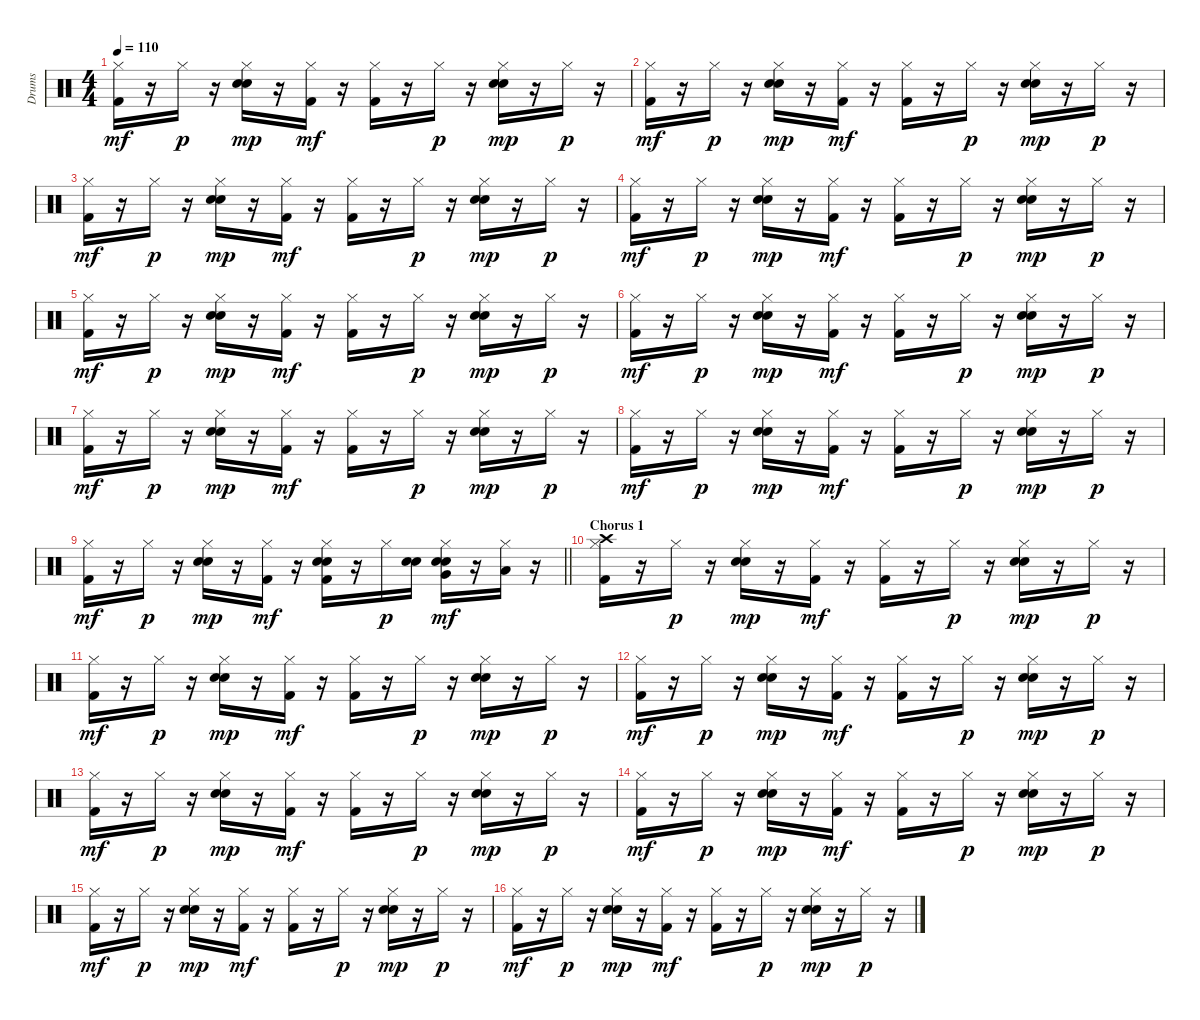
\track ("Drums" "Drums") {instrument percussion}
\staff {score}
\articulation defaults
\ts (4 4)
\tempo 110
\clef neutral
\ks c
("Hi-Hat (closed)" "Kick (hit) 2").16{dy mf} r.16 "Hi-Hat (closed)".16{dy p} r.16 ("Hi-Hat (closed)" "Electric Snare (hit)" "Snare (hit) 2").16{dy mp} r.16 ("Hi-Hat (closed)" "Kick (hit) 2").16{dy mf} r.16 ("Hi-Hat (closed)" "Kick (hit) 2").16 r.16 "Hi-Hat (closed)".16{dy p} r.16 ("Hi-Hat (closed)" "Electric Snare (hit)" "Snare (hit) 2").16{dy mp} r.16 "Hi-Hat (closed)".16{dy p} r.16 |
("Hi-Hat (closed)" "Kick (hit) 2").16{dy mf} r.16 "Hi-Hat (closed)".16{dy p} r.16 ("Hi-Hat (closed)" "Electric Snare (hit)" "Snare (hit) 2").16{dy mp} r.16 ("Hi-Hat (closed)" "Kick (hit) 2").16{dy mf} r.16 ("Hi-Hat (closed)" "Kick (hit) 2").16 r.16 "Hi-Hat (closed)".16{dy p} r.16 ("Hi-Hat (closed)" "Electric Snare (hit)" "Snare (hit) 2").16{dy mp} r.16 "Hi-Hat (closed)".16{dy p} r.16 |
("Hi-Hat (closed)" "Kick (hit) 2").16{dy mf} r.16 "Hi-Hat (closed)".16{dy p} r.16 ("Hi-Hat (closed)" "Electric Snare (hit)" "Snare (hit) 2").16{dy mp} r.16 ("Hi-Hat (closed)" "Kick (hit) 2").16{dy mf} r.16 ("Hi-Hat (closed)" "Kick (hit) 2").16 r.16 "Hi-Hat (closed)".16{dy p} r.16 ("Hi-Hat (closed)" "Electric Snare (hit)" "Snare (hit) 2").16{dy mp} r.16 "Hi-Hat (closed)".16{dy p} r.16 |
("Hi-Hat (closed)" "Kick (hit) 2").16{dy mf} r.16 "Hi-Hat (closed)".16{dy p} r.16 ("Hi-Hat (closed)" "Electric Snare (hit)" "Snare (hit) 2").16{dy mp} r.16 ("Hi-Hat (closed)" "Kick (hit) 2").16{dy mf} r.16 ("Hi-Hat (closed)" "Kick (hit) 2").16 r.16 "Hi-Hat (closed)".16{dy p} r.16 ("Hi-Hat (closed)" "Electric Snare (hit)" "Snare (hit) 2").16{dy mp} r.16 "Hi-Hat (closed)".16{dy p} r.16 |
("Hi-Hat (closed)" "Kick (hit) 2").16{dy mf} r.16 "Hi-Hat (closed)".16{dy p} r.16 ("Hi-Hat (closed)" "Electric Snare (hit)" "Snare (hit) 2").16{dy mp} r.16 ("Hi-Hat (closed)" "Kick (hit) 2").16{dy mf} r.16 ("Hi-Hat (closed)" "Kick (hit) 2").16 r.16 "Hi-Hat (closed)".16{dy p} r.16 ("Hi-Hat (closed)" "Electric Snare (hit)" "Snare (hit) 2").16{dy mp} r.16 "Hi-Hat (closed)".16{dy p} r.16 |
("Hi-Hat (closed)" "Kick (hit) 2").16{dy mf} r.16 "Hi-Hat (closed)".16{dy p} r.16 ("Hi-Hat (closed)" "Electric Snare (hit)" "Snare (hit) 2").16{dy mp} r.16 ("Hi-Hat (closed)" "Kick (hit) 2").16{dy mf} r.16 ("Hi-Hat (closed)" "Kick (hit) 2").16 r.16 "Hi-Hat (closed)".16{dy p} r.16 ("Hi-Hat (closed)" "Electric Snare (hit)" "Snare (hit) 2").16{dy mp} r.16 "Hi-Hat (closed)".16{dy p} r.16 |
("Hi-Hat (closed)" "Kick (hit) 2").16{dy mf} r.16 "Hi-Hat (closed)".16{dy p} r.16 ("Hi-Hat (closed)" "Electric Snare (hit)" "Snare (hit) 2").16{dy mp} r.16 ("Hi-Hat (closed)" "Kick (hit) 2").16{dy mf} r.16 ("Hi-Hat (closed)" "Kick (hit) 2").16 r.16 "Hi-Hat (closed)".16{dy p} r.16 ("Hi-Hat (closed)" "Electric Snare (hit)" "Snare (hit) 2").16{dy mp} r.16 "Hi-Hat (closed)".16{dy p} r.16 |
("Hi-Hat (closed)" "Kick (hit) 2").16{dy mf} r.16 "Hi-Hat (closed)".16{dy p} r.16 ("Hi-Hat (closed)" "Electric Snare (hit)" "Snare (hit) 2").16{dy mp} r.16 ("Hi-Hat (closed)" "Kick (hit) 2").16{dy mf} r.16 ("Hi-Hat (closed)" "Kick (hit) 2").16 r.16 "Hi-Hat (closed)".16{dy p} r.16 ("Hi-Hat (closed)" "Electric Snare (hit)" "Snare (hit) 2").16{dy mp} r.16 "Hi-Hat (closed)".16{dy p} r.16 |
\barLineRight lightlight
("Hi-Hat (closed)" "Kick (hit) 2").16{dy mf} r.16 "Hi-Hat (closed)".16{dy p} r.16 ("Hi-Hat (closed)" "Electric Snare (hit)" "Snare (hit) 2").16{dy mp} r.16 ("Hi-Hat (closed)" "Kick (hit) 2").16{dy mf} r.16 ("Hi-Hat (closed)" "Electric Snare (hit)" "Snare (hit) 2" "Kick (hit) 2").16 r.16 "Hi-Hat (closed)".16{dy p} ("Electric Snare (hit)" "Snare (hit) 2").16 ("Hi-Hat (closed)" "Electric Snare (hit)" "Snare (hit) 2" "Very Low Tom (hit)").16{dy mf} r.16 ("Hi-Hat (closed)" "Low Floor Tom (hit)").16 r.16 |
\section ("" "Chorus 1")
("Crash high (hit)" "Hi-Hat (closed)" "Kick (hit) 2").16 r.16 "Hi-Hat (closed)".16{dy p} r.16 ("Hi-Hat (closed)" "Electric Snare (hit)" "Snare (hit) 2").16{dy mp} r.16 ("Hi-Hat (closed)" "Kick (hit) 2").16{dy mf} r.16 ("Hi-Hat (closed)" "Kick (hit) 2").16 r.16 "Hi-Hat (closed)".16{dy p} r.16 ("Hi-Hat (closed)" "Electric Snare (hit)" "Snare (hit) 2").16{dy mp} r.16 "Hi-Hat (closed)".16{dy p} r.16 |
("Hi-Hat (closed)" "Kick (hit) 2").16{dy mf} r.16 "Hi-Hat (closed)".16{dy p} r.16 ("Hi-Hat (closed)" "Electric Snare (hit)" "Snare (hit) 2").16{dy mp} r.16 ("Hi-Hat (closed)" "Kick (hit) 2").16{dy mf} r.16 ("Hi-Hat (closed)" "Kick (hit) 2").16 r.16 "Hi-Hat (closed)".16{dy p} r.16 ("Hi-Hat (closed)" "Electric Snare (hit)" "Snare (hit) 2").16{dy mp} r.16 "Hi-Hat (closed)".16{dy p} r.16 |
("Hi-Hat (closed)" "Kick (hit) 2").16{dy mf} r.16 "Hi-Hat (closed)".16{dy p} r.16 ("Hi-Hat (closed)" "Electric Snare (hit)" "Snare (hit) 2").16{dy mp} r.16 ("Hi-Hat (closed)" "Kick (hit) 2").16{dy mf} r.16 ("Hi-Hat (closed)" "Kick (hit) 2").16 r.16 "Hi-Hat (closed)".16{dy p} r.16 ("Hi-Hat (closed)" "Electric Snare (hit)" "Snare (hit) 2").16{dy mp} r.16 "Hi-Hat (closed)".16{dy p} r.16 |
("Hi-Hat (closed)" "Kick (hit) 2").16{dy mf} r.16 "Hi-Hat (closed)".16{dy p} r.16 ("Hi-Hat (closed)" "Electric Snare (hit)" "Snare (hit) 2").16{dy mp} r.16 ("Hi-Hat (closed)" "Kick (hit) 2").16{dy mf} r.16 ("Hi-Hat (closed)" "Kick (hit) 2").16 r.16 "Hi-Hat (closed)".16{dy p} r.16 ("Hi-Hat (closed)" "Electric Snare (hit)" "Snare (hit) 2").16{dy mp} r.16 "Hi-Hat (closed)".16{dy p} r.16 |
("Hi-Hat (closed)" "Kick (hit) 2").16{dy mf} r.16 "Hi-Hat (closed)".16{dy p} r.16 ("Hi-Hat (closed)" "Electric Snare (hit)" "Snare (hit) 2").16{dy mp} r.16 ("Hi-Hat (closed)" "Kick (hit) 2").16{dy mf} r.16 ("Hi-Hat (closed)" "Kick (hit) 2").16 r.16 "Hi-Hat (closed)".16{dy p} r.16 ("Hi-Hat (closed)" "Electric Snare (hit)" "Snare (hit) 2").16{dy mp} r.16 "Hi-Hat (closed)".16{dy p} r.16 |
("Hi-Hat (closed)" "Kick (hit) 2").16{dy mf} r.16 "Hi-Hat (closed)".16{dy p} r.16 ("Hi-Hat (closed)" "Electric Snare (hit)" "Snare (hit) 2").16{dy mp} r.16 ("Hi-Hat (closed)" "Kick (hit) 2").16{dy mf} r.16 ("Hi-Hat (closed)" "Kick (hit) 2").16 r.16 "Hi-Hat (closed)".16{dy p} r.16 ("Hi-Hat (closed)" "Electric Snare (hit)" "Snare (hit) 2").16{dy mp} r.16 "Hi-Hat (closed)".16{dy p} r.16 |
("Hi-Hat (closed)" "Kick (hit) 2").16{dy mf} r.16 "Hi-Hat (closed)".16{dy p} r.16 ("Hi-Hat (closed)" "Electric Snare (hit)" "Snare (hit) 2").16{dy mp} r.16 ("Hi-Hat (closed)" "Kick (hit) 2").16{dy mf} r.16 ("Hi-Hat (closed)" "Kick (hit) 2").16 r.16 "Hi-Hat (closed)".16{dy p} r.16 ("Hi-Hat (closed)" "Electric Snare (hit)" "Snare (hit) 2").16{dy mp} r.16 "Hi-Hat (closed)".16{dy p} r.16
